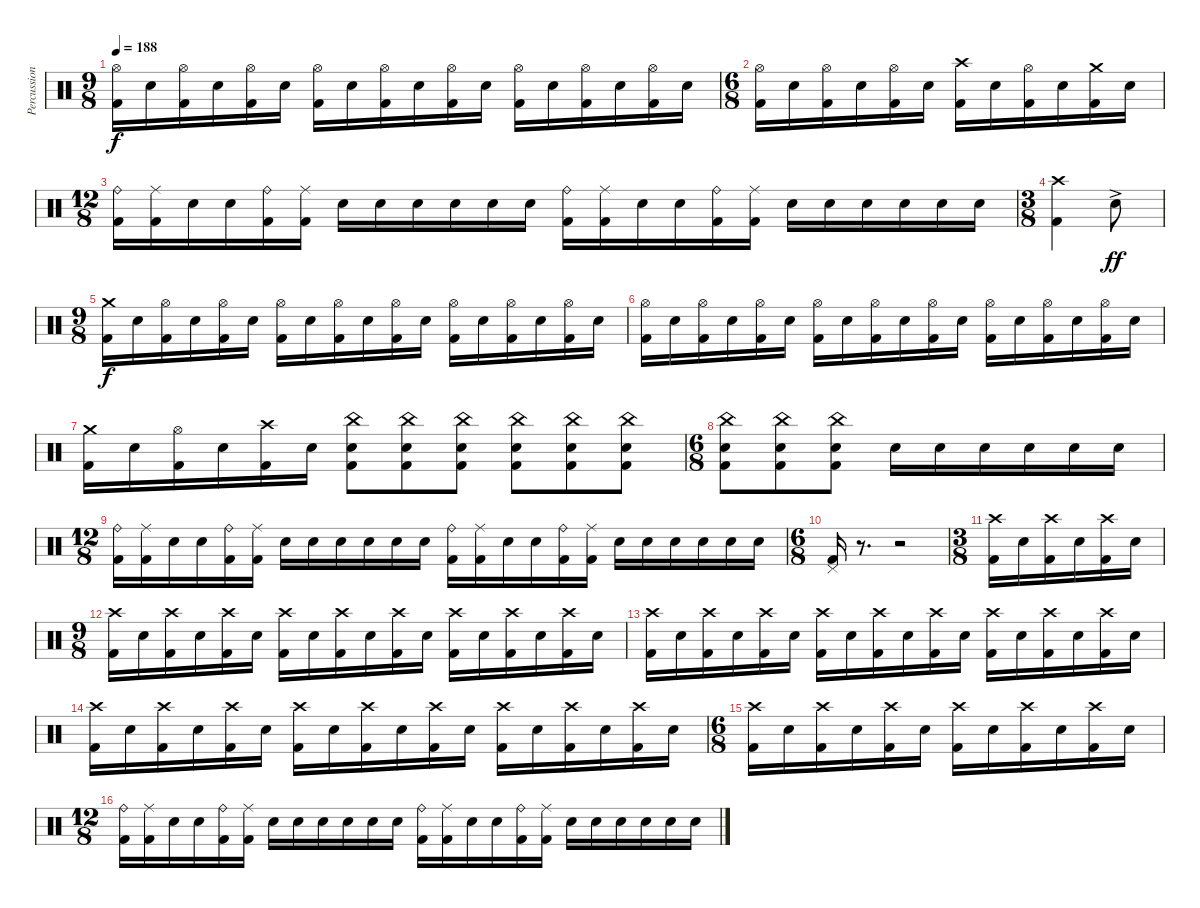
\track ("Percussion" "Percussion") {instrument percussion}
\staff {score}
\articulation defaults
\ts (9 8)
\tempo 188
\clef neutral
\ks c
("Hi-Hat (open)" "Kick (hit) 2").16{dy f} "Electric Snare (hit)".16 ("Hi-Hat (open)" "Kick (hit) 2").16 "Electric Snare (hit)".16 ("Hi-Hat (open)" "Kick (hit) 2").16 "Electric Snare (hit)".16 ("Hi-Hat (open)" "Kick (hit) 2").16 "Electric Snare (hit)".16 ("Hi-Hat (open)" "Kick (hit) 2").16 "Electric Snare (hit)".16 ("Hi-Hat (open)" "Kick (hit) 2").16 "Electric Snare (hit)".16 ("Hi-Hat (open)" "Kick (hit) 2").16 "Electric Snare (hit)".16 ("Hi-Hat (open)" "Kick (hit) 2").16 "Electric Snare (hit)".16 ("Hi-Hat (open)" "Kick (hit) 2").16 "Electric Snare (hit)".16 |
\ts (6 8)
("Hi-Hat (open)" "Kick (hit) 2").16 "Electric Snare (hit)".16 ("Hi-Hat (open)" "Kick (hit) 2").16 "Electric Snare (hit)".16 ("Hi-Hat (open)" "Kick (hit) 2").16 "Electric Snare (hit)".16 ("Crash high (hit)" "Kick (hit) 2").16 "Electric Snare (hit)".16 ("Hi-Hat (open)" "Kick (hit) 2").16 "Electric Snare (hit)".16 ("Crash medium (hit)" "Kick (hit) 2").16 "Electric Snare (hit)".16 |
\ts (12 8)
("Ride (bell)" "Kick (hit) 2").16 ("Ride (middle)" "Kick (hit) 2").16 "Electric Snare (hit)".16 "Electric Snare (hit)".16 ("Ride (bell)" "Kick (hit) 2").16 ("Ride (middle)" "Kick (hit) 2").16 "Electric Snare (hit)".16 "Electric Snare (hit)".16 "Electric Snare (hit)".16 "Electric Snare (hit)".16 "Electric Snare (hit)".16 "Electric Snare (hit)".16 ("Ride (bell)" "Kick (hit) 2").16 ("Ride (middle)" "Kick (hit) 2").16 "Electric Snare (hit)".16 "Electric Snare (hit)".16 ("Ride (bell)" "Kick (hit) 2").16 ("Ride (middle)" "Kick (hit) 2").16 "Electric Snare (hit)".16 "Electric Snare (hit)".16 "Electric Snare (hit)".16 "Electric Snare (hit)".16 "Electric Snare (hit)".16 "Electric Snare (hit)".16 |
\ts (3 8)
("Crash high (hit)" "Kick (hit) 2").4 "Electric Snare (hit)"{ac}.8{dy ff} |
\ts (9 8)
("Crash medium (hit)" "Kick (hit) 2").16{dy f} "Electric Snare (hit)".16 ("Hi-Hat (open)" "Kick (hit) 2").16 "Electric Snare (hit)".16 ("Hi-Hat (open)" "Kick (hit) 2").16 "Electric Snare (hit)".16 ("Hi-Hat (open)" "Kick (hit) 2").16 "Electric Snare (hit)".16 ("Hi-Hat (open)" "Kick (hit) 2").16 "Electric Snare (hit)".16 ("Hi-Hat (open)" "Kick (hit) 2").16 "Electric Snare (hit)".16 ("Hi-Hat (open)" "Kick (hit) 2").16 "Electric Snare (hit)".16 ("Hi-Hat (open)" "Kick (hit) 2").16 "Electric Snare (hit)".16 ("Hi-Hat (open)" "Kick (hit) 2").16 "Electric Snare (hit)".16 |
("Hi-Hat (open)" "Kick (hit) 2").16 "Electric Snare (hit)".16 ("Hi-Hat (open)" "Kick (hit) 2").16 "Electric Snare (hit)".16 ("Hi-Hat (open)" "Kick (hit) 2").16 "Electric Snare (hit)".16 ("Hi-Hat (open)" "Kick (hit) 2").16 "Electric Snare (hit)".16 ("Hi-Hat (open)" "Kick (hit) 2").16 "Electric Snare (hit)".16 ("Hi-Hat (open)" "Kick (hit) 2").16 "Electric Snare (hit)".16 ("Hi-Hat (open)" "Kick (hit) 2").16 "Electric Snare (hit)".16 ("Hi-Hat (open)" "Kick (hit) 2").16 "Electric Snare (hit)".16 ("Hi-Hat (open)" "Kick (hit) 2").16 "Electric Snare (hit)".16 |
("Crash medium (hit)" "Kick (hit) 2").16 "Electric Snare (hit)".16 ("Hi-Hat (open)" "Kick (hit) 2").16 "Electric Snare (hit)".16 ("Crash high (hit)" "Kick (hit) 2").16 "Electric Snare (hit)".16 ("China (hit)" "Kick (hit) 2" "Electric Snare (hit)").8 ("China (hit)" "Kick (hit) 2" "Electric Snare (hit)").8 ("China (hit)" "Kick (hit) 2" "Electric Snare (hit)").8 ("China (hit)" "Kick (hit) 2" "Electric Snare (hit)").8 ("China (hit)" "Kick (hit) 2" "Electric Snare (hit)").8 ("China (hit)" "Kick (hit) 2" "Electric Snare (hit)").8 |
\ts (6 8)
("China (hit)" "Kick (hit) 2" "Electric Snare (hit)").8 ("China (hit)" "Kick (hit) 2" "Electric Snare (hit)").8 ("China (hit)" "Kick (hit) 2" "Electric Snare (hit)").8 "Electric Snare (hit)".16 "Electric Snare (hit)".16 "Electric Snare (hit)".16 "Electric Snare (hit)".16 "Electric Snare (hit)".16 "Electric Snare (hit)".16 |
\ts (12 8)
("Ride (bell)" "Kick (hit) 2").16 ("Ride (middle)" "Kick (hit) 2").16 "Electric Snare (hit)".16 "Electric Snare (hit)".16 ("Ride (bell)" "Kick (hit) 2").16 ("Ride (middle)" "Kick (hit) 2").16 "Electric Snare (hit)".16 "Electric Snare (hit)".16 "Electric Snare (hit)".16 "Electric Snare (hit)".16 "Electric Snare (hit)".16 "Electric Snare (hit)".16 ("Ride (bell)" "Kick (hit) 2").16 ("Ride (middle)" "Kick (hit) 2").16 "Electric Snare (hit)".16 "Electric Snare (hit)".16 ("Ride (bell)" "Kick (hit) 2").16 ("Ride (middle)" "Kick (hit) 2").16 "Electric Snare (hit)".16 "Electric Snare (hit)".16 "Electric Snare (hit)".16 "Electric Snare (hit)".16 "Electric Snare (hit)".16 "Electric Snare (hit)".16 |
\ts (6 8)
("Kick (hit) 2" "Pedal Hi-Hat (hit)").16 r.8{d volume 0} r.2 |
\ts (3 8)
("Crash high (hit)" "Kick (hit) 2").16{volume 13} "Electric Snare (hit)".16 ("Crash high (hit)" "Kick (hit) 2").16 "Electric Snare (hit)".16 ("Crash high (hit)" "Kick (hit) 2").16 "Electric Snare (hit)".16 |
\ts (9 8)
("Crash high (hit)" "Kick (hit) 2").16 "Electric Snare (hit)".16 ("Crash high (hit)" "Kick (hit) 2").16 "Electric Snare (hit)".16 ("Crash high (hit)" "Kick (hit) 2").16 "Electric Snare (hit)".16 ("Crash high (hit)" "Kick (hit) 2").16 "Electric Snare (hit)".16 ("Crash high (hit)" "Kick (hit) 2").16 "Electric Snare (hit)".16 ("Crash high (hit)" "Kick (hit) 2").16 "Electric Snare (hit)".16 ("Crash high (hit)" "Kick (hit) 2").16 "Electric Snare (hit)".16 ("Crash high (hit)" "Kick (hit) 2").16 "Electric Snare (hit)".16 ("Crash high (hit)" "Kick (hit) 2").16 "Electric Snare (hit)".16 |
("Crash high (hit)" "Kick (hit) 2").16 "Electric Snare (hit)".16 ("Crash high (hit)" "Kick (hit) 2").16 "Electric Snare (hit)".16 ("Crash high (hit)" "Kick (hit) 2").16 "Electric Snare (hit)".16 ("Crash high (hit)" "Kick (hit) 2").16 "Electric Snare (hit)".16 ("Crash high (hit)" "Kick (hit) 2").16 "Electric Snare (hit)".16 ("Crash high (hit)" "Kick (hit) 2").16 "Electric Snare (hit)".16 ("Crash high (hit)" "Kick (hit) 2").16 "Electric Snare (hit)".16 ("Crash high (hit)" "Kick (hit) 2").16 "Electric Snare (hit)".16 ("Crash high (hit)" "Kick (hit) 2").16 "Electric Snare (hit)".16 |
("Crash high (hit)" "Kick (hit) 2").16 "Electric Snare (hit)".16 ("Crash high (hit)" "Kick (hit) 2").16 "Electric Snare (hit)".16 ("Crash high (hit)" "Kick (hit) 2").16 "Electric Snare (hit)".16 ("Crash high (hit)" "Kick (hit) 2").16 "Electric Snare (hit)".16 ("Crash high (hit)" "Kick (hit) 2").16 "Electric Snare (hit)".16 ("Crash high (hit)" "Kick (hit) 2").16 "Electric Snare (hit)".16 ("Crash high (hit)" "Kick (hit) 2").16 "Electric Snare (hit)".16 ("Crash high (hit)" "Kick (hit) 2").16 "Electric Snare (hit)".16 ("Crash high (hit)" "Kick (hit) 2").16 "Electric Snare (hit)".16 |
\ts (6 8)
("Crash high (hit)" "Kick (hit) 2").16 "Electric Snare (hit)".16 ("Crash high (hit)" "Kick (hit) 2").16 "Electric Snare (hit)".16 ("Crash high (hit)" "Kick (hit) 2").16 "Electric Snare (hit)".16 ("Crash high (hit)" "Kick (hit) 2").16 "Electric Snare (hit)".16 ("Crash high (hit)" "Kick (hit) 2").16 "Electric Snare (hit)".16 ("Crash high (hit)" "Kick (hit) 2").16 "Electric Snare (hit)".16 |
\ts (12 8)
("Ride (bell)" "Kick (hit) 2").16 ("Ride (middle)" "Kick (hit) 2").16 "Electric Snare (hit)".16 "Electric Snare (hit)".16 ("Ride (bell)" "Kick (hit) 2").16 ("Ride (middle)" "Kick (hit) 2").16 "Electric Snare (hit)".16 "Electric Snare (hit)".16 "Electric Snare (hit)".16 "Electric Snare (hit)".16 "Electric Snare (hit)".16 "Electric Snare (hit)".16 ("Ride (bell)" "Kick (hit) 2").16 ("Ride (middle)" "Kick (hit) 2").16 "Electric Snare (hit)".16 "Electric Snare (hit)".16 ("Ride (bell)" "Kick (hit) 2").16 ("Ride (middle)" "Kick (hit) 2").16 "Electric Snare (hit)".16 "Electric Snare (hit)".16 "Electric Snare (hit)".16 "Electric Snare (hit)".16 "Electric Snare (hit)".16 "Electric Snare (hit)".16
